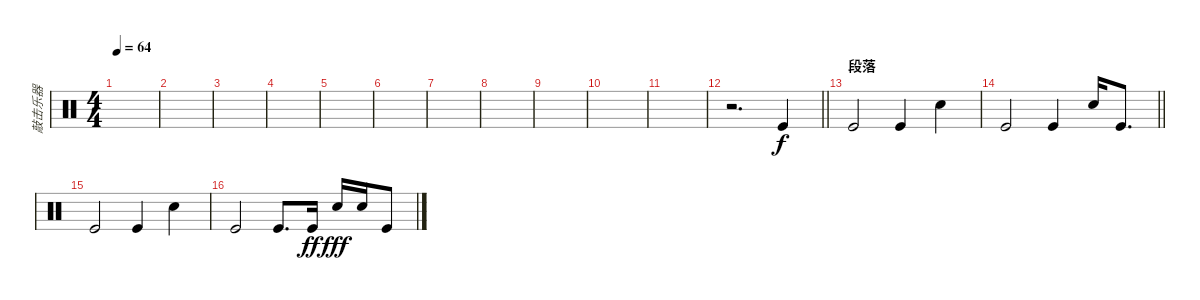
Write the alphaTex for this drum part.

\track ("敲击乐器" "敲击乐器") {instrument percussion}
\staff {score}
\articulation defaults
\ts (4 4)
\tempo 64
\clef neutral
\ks c
|
|
|
|
|
|
|
|
|
|
|
\barLineRight lightlight
r.2{d} "Kick (hit)".4 |
\section ("" "段落 ")
"Kick (hit)".2 "Kick (hit)".4 "Snare (hit) 2".4 |
\barLineRight lightlight "Kick (hit)".2 "Kick (hit)".4 "Snare (hit) 2".16 "Kick (hit)".8{d}
|
"Kick (hit)".2 "Kick (hit)".4 "Snare (hit) 2".4 |
"Kick (hit)".2 "Kick (hit)".8{d} "Kick (hit)".16{dy ff} "Snare (hit) 2".16{dy fff} "Snare (hit) 2".16 "Kick (hit)".8
